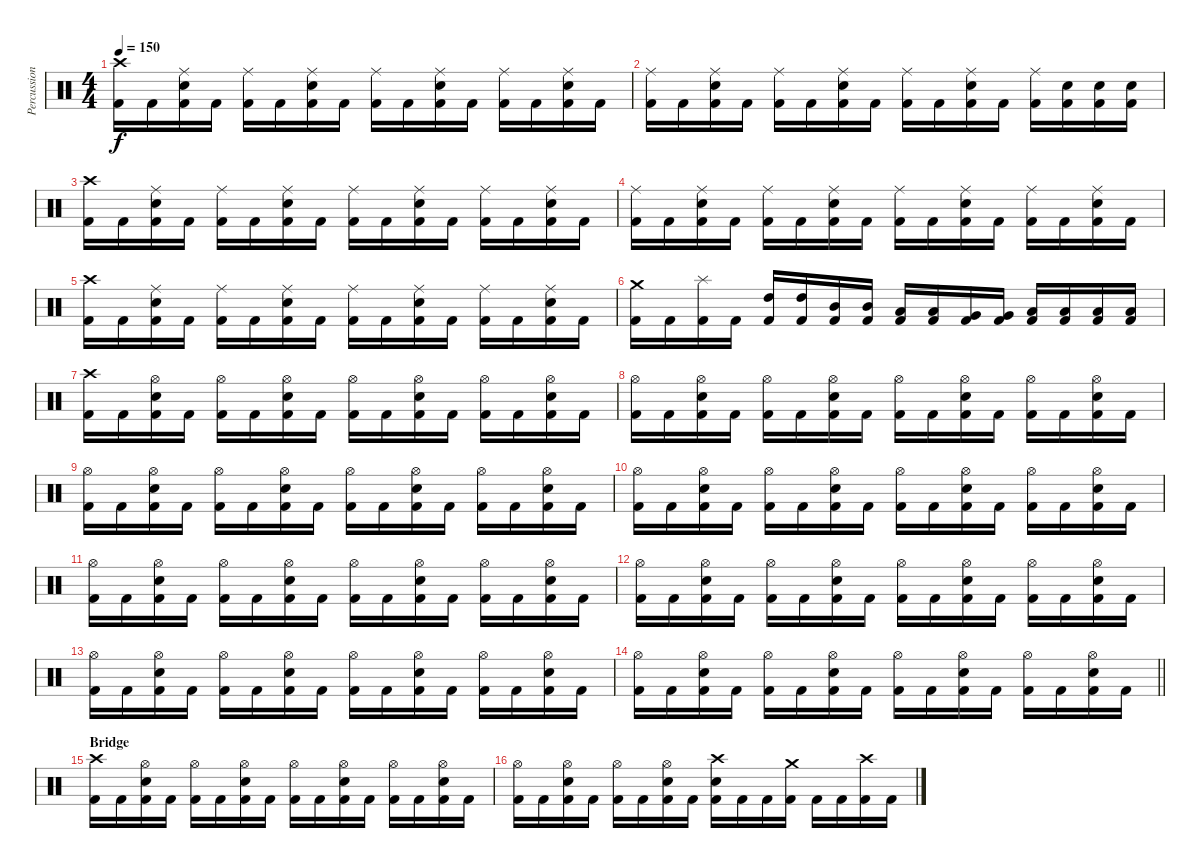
\track ("Percussion" "Percussion") {instrument percussion}
\staff {score}
\articulation defaults
\ts (4 4)
\tempo 150
\clef neutral
\ks c
("Crash high (hit)" "Kick (hit) 2").16{dy f} "Kick (hit) 2".16 ("Ride (middle)" "Electric Snare (hit)" "Kick (hit) 2").16 "Kick (hit) 2".16 ("Ride (middle)" "Kick (hit) 2").16 "Kick (hit) 2".16 ("Ride (middle)" "Electric Snare (hit)" "Kick (hit) 2").16 "Kick (hit) 2".16 ("Ride (middle)" "Kick (hit) 2").16 "Kick (hit) 2".16 ("Ride (middle)" "Electric Snare (hit)" "Kick (hit) 2").16 "Kick (hit) 2".16 ("Ride (middle)" "Kick (hit) 2").16 "Kick (hit) 2".16 ("Ride (middle)" "Electric Snare (hit)" "Kick (hit) 2").16 "Kick (hit) 2".16 |
("Ride (middle)" "Kick (hit) 2").16 "Kick (hit) 2".16 ("Ride (middle)" "Electric Snare (hit)" "Kick (hit) 2").16 "Kick (hit) 2".16 ("Ride (middle)" "Kick (hit) 2").16 "Kick (hit) 2".16 ("Ride (middle)" "Electric Snare (hit)" "Kick (hit) 2").16 "Kick (hit) 2".16 ("Ride (middle)" "Kick (hit) 2").16 "Kick (hit) 2".16 ("Ride (middle)" "Electric Snare (hit)" "Kick (hit) 2").16 "Kick (hit) 2".16 ("Ride (middle)" "Kick (hit) 2").16 ("Electric Snare (hit)" "Kick (hit) 2").16 ("Electric Snare (hit)" "Kick (hit) 2").16 ("Electric Snare (hit)" "Kick (hit) 2").16 |
("Crash high (hit)" "Kick (hit) 2").16 "Kick (hit) 2".16 ("Ride (middle)" "Electric Snare (hit)" "Kick (hit) 2").16 "Kick (hit) 2".16 ("Ride (middle)" "Kick (hit) 2").16 "Kick (hit) 2".16 ("Ride (middle)" "Electric Snare (hit)" "Kick (hit) 2").16 "Kick (hit) 2".16 ("Ride (middle)" "Kick (hit) 2").16 "Kick (hit) 2".16 ("Ride (middle)" "Electric Snare (hit)" "Kick (hit) 2").16 "Kick (hit) 2".16 ("Ride (middle)" "Kick (hit) 2").16 "Kick (hit) 2".16 ("Ride (middle)" "Electric Snare (hit)" "Kick (hit) 2").16 "Kick (hit) 2".16 |
("Ride (middle)" "Kick (hit) 2").16 "Kick (hit) 2".16 ("Ride (middle)" "Electric Snare (hit)" "Kick (hit) 2").16 "Kick (hit) 2".16 ("Ride (middle)" "Kick (hit) 2").16 "Kick (hit) 2".16 ("Ride (middle)" "Electric Snare (hit)" "Kick (hit) 2").16 "Kick (hit) 2".16 ("Ride (middle)" "Kick (hit) 2").16 "Kick (hit) 2".16 ("Ride (middle)" "Electric Snare (hit)" "Kick (hit) 2").16 "Kick (hit) 2".16 ("Ride (middle)" "Kick (hit) 2").16 "Kick (hit) 2".16 ("Ride (middle)" "Electric Snare (hit)" "Kick (hit) 2").16 "Kick (hit) 2".16 |
("Crash high (hit)" "Kick (hit) 2").16 "Kick (hit) 2".16 ("Ride (middle)" "Electric Snare (hit)" "Kick (hit) 2").16 "Kick (hit) 2".16 ("Ride (middle)" "Kick (hit) 2").16 "Kick (hit) 2".16 ("Ride (middle)" "Electric Snare (hit)" "Kick (hit) 2").16 "Kick (hit) 2".16 ("Ride (middle)" "Kick (hit) 2").16 "Kick (hit) 2".16 ("Ride (middle)" "Electric Snare (hit)" "Kick (hit) 2").16 "Kick (hit) 2".16 ("Ride (middle)" "Kick (hit) 2").16 "Kick (hit) 2".16 ("Ride (middle)" "Electric Snare (hit)" "Kick (hit) 2").16 "Kick (hit) 2".16 |
("Crash medium (hit)" "Kick (hit) 2").16 "Kick (hit) 2".16 ("Splash (hit)" "Kick (hit) 2").16 "Kick (hit) 2".16 ("High Tom (hit)" "Kick (hit) 2").16 ("High Tom (hit)" "Kick (hit) 2").16 ("Mid Tom (hit)" "Kick (hit) 2").16 ("Mid Tom (hit)" "Kick (hit) 2").16 ("Low Tom (hit)" "Kick (hit) 2").16 ("Low Tom (hit)" "Kick (hit) 2").16 ("Very Low Tom (hit)" "Kick (hit) 2").16 ("Very Low Tom (hit)" "Kick (hit) 2").16 ("Low Floor Tom (hit)" "Kick (hit) 2").16 ("Low Floor Tom (hit)" "Kick (hit) 2").16 ("Low Floor Tom (hit)" "Kick (hit) 2").16 ("Low Floor Tom (hit)" "Kick (hit) 2").16 |
("Crash high (hit)" "Kick (hit) 2").16 "Kick (hit) 2".16 ("Hi-Hat (open)" "Electric Snare (hit)" "Kick (hit) 2").16 "Kick (hit) 2".16 ("Hi-Hat (open)" "Kick (hit) 2").16 "Kick (hit) 2".16 ("Hi-Hat (open)" "Electric Snare (hit)" "Kick (hit) 2").16 "Kick (hit) 2".16 ("Hi-Hat (open)" "Kick (hit) 2").16 "Kick (hit) 2".16 ("Hi-Hat (open)" "Electric Snare (hit)" "Kick (hit) 2").16 "Kick (hit) 2".16 ("Hi-Hat (open)" "Kick (hit) 2").16 "Kick (hit) 2".16 ("Hi-Hat (open)" "Electric Snare (hit)" "Kick (hit) 2").16 "Kick (hit) 2".16 |
("Hi-Hat (open)" "Kick (hit) 2").16 "Kick (hit) 2".16 ("Hi-Hat (open)" "Electric Snare (hit)" "Kick (hit) 2").16 "Kick (hit) 2".16 ("Hi-Hat (open)" "Kick (hit) 2").16 "Kick (hit) 2".16 ("Hi-Hat (open)" "Electric Snare (hit)" "Kick (hit) 2").16 "Kick (hit) 2".16 ("Hi-Hat (open)" "Kick (hit) 2").16 "Kick (hit) 2".16 ("Hi-Hat (open)" "Electric Snare (hit)" "Kick (hit) 2").16 "Kick (hit) 2".16 ("Hi-Hat (open)" "Kick (hit) 2").16 "Kick (hit) 2".16 ("Hi-Hat (open)" "Electric Snare (hit)" "Kick (hit) 2").16 "Kick (hit) 2".16 |
("Hi-Hat (open)" "Kick (hit) 2").16 "Kick (hit) 2".16 ("Hi-Hat (open)" "Electric Snare (hit)" "Kick (hit) 2").16 "Kick (hit) 2".16 ("Hi-Hat (open)" "Kick (hit) 2").16 "Kick (hit) 2".16 ("Hi-Hat (open)" "Electric Snare (hit)" "Kick (hit) 2").16 "Kick (hit) 2".16 ("Hi-Hat (open)" "Kick (hit) 2").16 "Kick (hit) 2".16 ("Hi-Hat (open)" "Electric Snare (hit)" "Kick (hit) 2").16 "Kick (hit) 2".16 ("Hi-Hat (open)" "Kick (hit) 2").16 "Kick (hit) 2".16 ("Hi-Hat (open)" "Electric Snare (hit)" "Kick (hit) 2").16 "Kick (hit) 2".16 |
("Hi-Hat (open)" "Kick (hit) 2").16 "Kick (hit) 2".16 ("Hi-Hat (open)" "Electric Snare (hit)" "Kick (hit) 2").16 "Kick (hit) 2".16 ("Hi-Hat (open)" "Kick (hit) 2").16 "Kick (hit) 2".16 ("Hi-Hat (open)" "Electric Snare (hit)" "Kick (hit) 2").16 "Kick (hit) 2".16 ("Hi-Hat (open)" "Kick (hit) 2").16 "Kick (hit) 2".16 ("Hi-Hat (open)" "Electric Snare (hit)" "Kick (hit) 2").16 "Kick (hit) 2".16 ("Hi-Hat (open)" "Kick (hit) 2").16 "Kick (hit) 2".16 ("Hi-Hat (open)" "Electric Snare (hit)" "Kick (hit) 2").16 "Kick (hit) 2".16 |
("Hi-Hat (open)" "Kick (hit) 2").16 "Kick (hit) 2".16 ("Hi-Hat (open)" "Electric Snare (hit)" "Kick (hit) 2").16 "Kick (hit) 2".16 ("Hi-Hat (open)" "Kick (hit) 2").16 "Kick (hit) 2".16 ("Hi-Hat (open)" "Electric Snare (hit)" "Kick (hit) 2").16 "Kick (hit) 2".16 ("Hi-Hat (open)" "Kick (hit) 2").16 "Kick (hit) 2".16 ("Hi-Hat (open)" "Electric Snare (hit)" "Kick (hit) 2").16 "Kick (hit) 2".16 ("Hi-Hat (open)" "Kick (hit) 2").16 "Kick (hit) 2".16 ("Hi-Hat (open)" "Electric Snare (hit)" "Kick (hit) 2").16 "Kick (hit) 2".16 |
("Hi-Hat (open)" "Kick (hit) 2").16 "Kick (hit) 2".16 ("Hi-Hat (open)" "Electric Snare (hit)" "Kick (hit) 2").16 "Kick (hit) 2".16 ("Hi-Hat (open)" "Kick (hit) 2").16 "Kick (hit) 2".16 ("Hi-Hat (open)" "Electric Snare (hit)" "Kick (hit) 2").16 "Kick (hit) 2".16 ("Hi-Hat (open)" "Kick (hit) 2").16 "Kick (hit) 2".16 ("Hi-Hat (open)" "Electric Snare (hit)" "Kick (hit) 2").16 "Kick (hit) 2".16 ("Hi-Hat (open)" "Kick (hit) 2").16 "Kick (hit) 2".16 ("Hi-Hat (open)" "Electric Snare (hit)" "Kick (hit) 2").16 "Kick (hit) 2".16 |
("Hi-Hat (open)" "Kick (hit) 2").16 "Kick (hit) 2".16 ("Hi-Hat (open)" "Electric Snare (hit)" "Kick (hit) 2").16 "Kick (hit) 2".16 ("Hi-Hat (open)" "Kick (hit) 2").16 "Kick (hit) 2".16 ("Hi-Hat (open)" "Electric Snare (hit)" "Kick (hit) 2").16 "Kick (hit) 2".16 ("Hi-Hat (open)" "Kick (hit) 2").16 "Kick (hit) 2".16 ("Hi-Hat (open)" "Electric Snare (hit)" "Kick (hit) 2").16 "Kick (hit) 2".16 ("Hi-Hat (open)" "Kick (hit) 2").16 "Kick (hit) 2".16 ("Hi-Hat (open)" "Electric Snare (hit)" "Kick (hit) 2").16 "Kick (hit) 2".16 |
\barLineRight lightlight
("Hi-Hat (open)" "Kick (hit) 2").16 "Kick (hit) 2".16 ("Hi-Hat (open)" "Electric Snare (hit)" "Kick (hit) 2").16 "Kick (hit) 2".16 ("Hi-Hat (open)" "Kick (hit) 2").16 "Kick (hit) 2".16 ("Hi-Hat (open)" "Electric Snare (hit)" "Kick (hit) 2").16 "Kick (hit) 2".16 ("Hi-Hat (open)" "Kick (hit) 2").16 "Kick (hit) 2".16 ("Hi-Hat (open)" "Electric Snare (hit)" "Kick (hit) 2").16 "Kick (hit) 2".16 ("Hi-Hat (open)" "Kick (hit) 2").16 "Kick (hit) 2".16 ("Hi-Hat (open)" "Electric Snare (hit)" "Kick (hit) 2").16 "Kick (hit) 2".16 |
\section ("" "Bridge")
("Crash high (hit)" "Kick (hit) 2").16 "Kick (hit) 2".16 ("Hi-Hat (open)" "Electric Snare (hit)" "Kick (hit) 2").16 "Kick (hit) 2".16 ("Hi-Hat (open)" "Kick (hit) 2").16 "Kick (hit) 2".16 ("Hi-Hat (open)" "Electric Snare (hit)" "Kick (hit) 2").16 "Kick (hit) 2".16 ("Hi-Hat (open)" "Kick (hit) 2").16 "Kick (hit) 2".16 ("Hi-Hat (open)" "Electric Snare (hit)" "Kick (hit) 2").16 "Kick (hit) 2".16 ("Hi-Hat (open)" "Kick (hit) 2").16 "Kick (hit) 2".16 ("Hi-Hat (open)" "Electric Snare (hit)" "Kick (hit) 2").16 "Kick (hit) 2".16 |
("Hi-Hat (open)" "Kick (hit) 2").16 "Kick (hit) 2".16 ("Hi-Hat (open)" "Electric Snare (hit)" "Kick (hit) 2").16 "Kick (hit) 2".16 ("Hi-Hat (open)" "Kick (hit) 2").16 "Kick (hit) 2".16 ("Hi-Hat (open)" "Electric Snare (hit)" "Kick (hit) 2").16 "Kick (hit) 2".16 ("Crash high (hit)" "Electric Snare (hit)" "Kick (hit) 2").16 "Kick (hit) 2".16 "Kick (hit) 2".16 ("Crash medium (hit)" "Kick (hit) 2").16 "Kick (hit) 2".16 "Kick (hit) 2".16 ("Crash high (hit)" "Kick (hit) 2").16 "Kick (hit) 2".16
